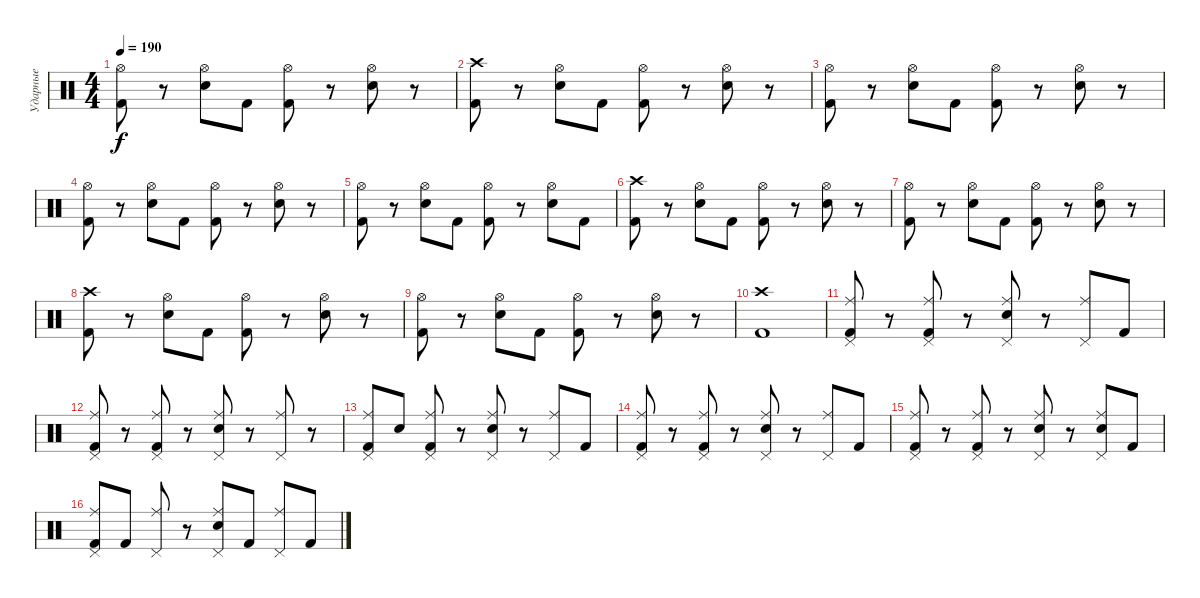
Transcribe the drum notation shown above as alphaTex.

\track ("Ударные" "Ударные") {instrument percussion}
\staff {score}
\articulation defaults
\ts (4 4)
\tempo 190
\clef neutral
\ks c
("Hi-Hat (open)" "Kick (hit) 2").8{dy f} r.8 ("Hi-Hat (open)" "Electric Snare (hit)").8 "Kick (hit) 2".8 ("Hi-Hat (open)" "Kick (hit) 2").8 r.8 ("Hi-Hat (open)" "Electric Snare (hit)").8 r.8 |
("Crash high (hit)" "Kick (hit) 2").8 r.8 ("Hi-Hat (open)" "Electric Snare (hit)").8 "Kick (hit) 2".8 ("Hi-Hat (open)" "Kick (hit) 2").8 r.8 ("Hi-Hat (open)" "Electric Snare (hit)").8 r.8 |
("Hi-Hat (open)" "Kick (hit) 2").8 r.8 ("Hi-Hat (open)" "Electric Snare (hit)").8 "Kick (hit) 2".8 ("Hi-Hat (open)" "Kick (hit) 2").8 r.8 ("Hi-Hat (open)" "Electric Snare (hit)").8 r.8 |
("Hi-Hat (open)" "Kick (hit) 2").8 r.8 ("Hi-Hat (open)" "Electric Snare (hit)").8 "Kick (hit) 2".8 ("Hi-Hat (open)" "Kick (hit) 2").8 r.8 ("Hi-Hat (open)" "Electric Snare (hit)").8 r.8 |
("Hi-Hat (open)" "Kick (hit) 2").8 r.8 ("Hi-Hat (open)" "Electric Snare (hit)").8 "Kick (hit) 2".8 ("Hi-Hat (open)" "Kick (hit) 2").8 r.8 ("Hi-Hat (open)" "Electric Snare (hit)").8 "Kick (hit) 2".8 |
("Crash high (hit)" "Kick (hit) 2").8 r.8 ("Hi-Hat (open)" "Electric Snare (hit)").8 "Kick (hit) 2".8 ("Hi-Hat (open)" "Kick (hit) 2").8 r.8 ("Hi-Hat (open)" "Electric Snare (hit)").8 r.8 |
("Hi-Hat (open)" "Kick (hit) 2").8 r.8 ("Hi-Hat (open)" "Electric Snare (hit)").8 "Kick (hit) 2".8 ("Hi-Hat (open)" "Kick (hit) 2").8 r.8 ("Hi-Hat (open)" "Electric Snare (hit)").8 r.8 |
("Crash high (hit)" "Kick (hit) 2").8 r.8 ("Hi-Hat (open)" "Electric Snare (hit)").8 "Kick (hit) 2".8 ("Hi-Hat (open)" "Kick (hit) 2").8 r.8 ("Hi-Hat (open)" "Electric Snare (hit)").8 r.8 |
("Hi-Hat (open)" "Kick (hit) 2").8 r.8 ("Hi-Hat (open)" "Electric Snare (hit)").8 "Kick (hit) 2".8 ("Hi-Hat (open)" "Kick (hit) 2").8 r.8 ("Hi-Hat (open)" "Electric Snare (hit)").8 r.8 |
("Crash high (hit)" "Kick (hit) 2").1 |
("Ride (middle)" "Kick (hit) 2" "Pedal Hi-Hat (hit)").8 r.8 ("Ride (middle)" "Kick (hit) 2" "Pedal Hi-Hat (hit)").8 r.8 ("Ride (middle)" "Electric Snare (hit)" "Pedal Hi-Hat (hit)").8 r.8 ("Ride (middle)" "Pedal Hi-Hat (hit)").8 "Kick (hit) 2".8 |
("Ride (middle)" "Kick (hit) 2" "Pedal Hi-Hat (hit)").8 r.8 ("Ride (middle)" "Kick (hit) 2" "Pedal Hi-Hat (hit)").8 r.8 ("Ride (middle)" "Electric Snare (hit)" "Pedal Hi-Hat (hit)").8 r.8 ("Ride (middle)" "Pedal Hi-Hat (hit)").8 r.8 |
("Ride (middle)" "Kick (hit) 2" "Pedal Hi-Hat (hit)").8 "Electric Snare (hit)".8 ("Ride (middle)" "Kick (hit) 2" "Pedal Hi-Hat (hit)").8 r.8 ("Ride (middle)" "Electric Snare (hit)" "Pedal Hi-Hat (hit)").8 r.8 ("Ride (middle)" "Pedal Hi-Hat (hit)").8 "Kick (hit) 2".8 |
("Ride (middle)" "Kick (hit) 2" "Pedal Hi-Hat (hit)").8 r.8 ("Ride (middle)" "Kick (hit) 2" "Pedal Hi-Hat (hit)").8 r.8 ("Ride (middle)" "Electric Snare (hit)" "Pedal Hi-Hat (hit)").8 r.8 ("Ride (middle)" "Pedal Hi-Hat (hit)").8 "Kick (hit) 2".8 |
("Ride (middle)" "Kick (hit) 2" "Pedal Hi-Hat (hit)").8 r.8 ("Ride (middle)" "Kick (hit) 2" "Pedal Hi-Hat (hit)").8 r.8 ("Ride (middle)" "Electric Snare (hit)" "Pedal Hi-Hat (hit)").8 r.8 ("Ride (middle)" "Electric Snare (hit)" "Pedal Hi-Hat (hit)").8 "Kick (hit) 2".8 |
("Ride (middle)" "Kick (hit) 2" "Pedal Hi-Hat (hit)").8 "Kick (hit) 2".8 ("Ride (middle)" "Pedal Hi-Hat (hit)").8 r.8 ("Ride (middle)" "Electric Snare (hit)" "Pedal Hi-Hat (hit)").8 "Kick (hit) 2".8 ("Ride (middle)" "Pedal Hi-Hat (hit)").8 "Kick (hit) 2".8
